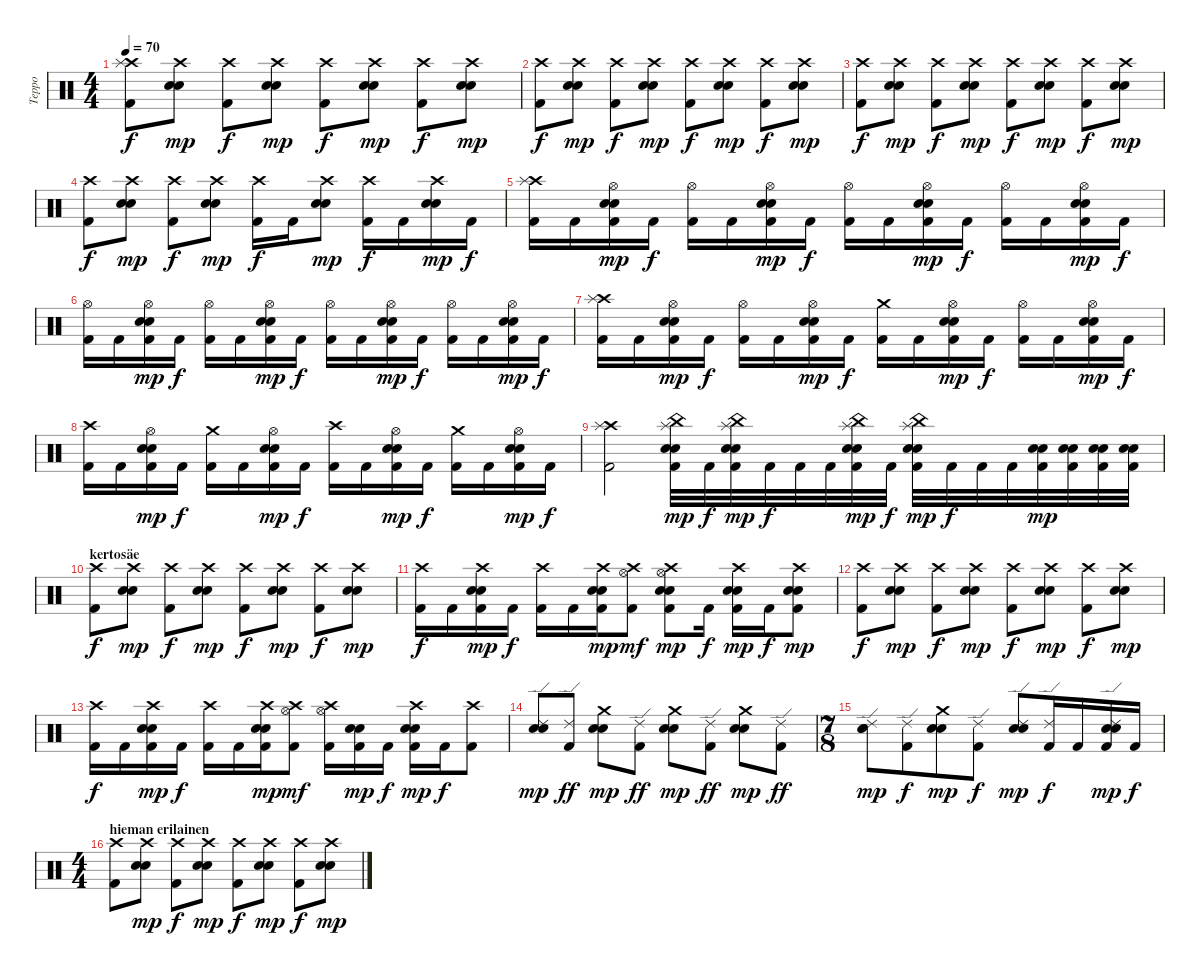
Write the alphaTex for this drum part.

\track ("Teppo" "Teppo") {instrument percussion}
\staff {score}
\articulation defaults
\ts (4 4)
\tempo 70
\clef neutral
\ks c
("Crash high (hit)" "Splash (hit)" "Kick (hit) 2").8{dy f} ("Crash high (hit)" "Snare (hit) 2" "Electric Snare (hit)").8{dy mp} ("Crash high (hit)" "Kick (hit) 2").8{dy f} ("Crash high (hit)" "Snare (hit) 2" "Electric Snare (hit)").8{dy mp} ("Crash high (hit)" "Kick (hit) 2").8{dy f} ("Crash high (hit)" "Snare (hit) 2" "Electric Snare (hit)").8{dy mp} ("Crash high (hit)" "Kick (hit) 2").8{dy f} ("Crash high (hit)" "Snare (hit) 2" "Electric Snare (hit)").8{dy mp} |
("Crash high (hit)" "Kick (hit) 2").8{dy f} ("Crash high (hit)" "Snare (hit) 2" "Electric Snare (hit)").8{dy mp} ("Crash high (hit)" "Kick (hit) 2").8{dy f} ("Crash high (hit)" "Snare (hit) 2" "Electric Snare (hit)").8{dy mp} ("Crash high (hit)" "Kick (hit) 2").8{dy f} ("Crash high (hit)" "Snare (hit) 2" "Electric Snare (hit)").8{dy mp} ("Crash high (hit)" "Kick (hit) 2").8{dy f} ("Crash high (hit)" "Snare (hit) 2" "Electric Snare (hit)").8{dy mp} |
("Crash high (hit)" "Kick (hit) 2").8{dy f} ("Crash high (hit)" "Snare (hit) 2" "Electric Snare (hit)").8{dy mp} ("Crash high (hit)" "Kick (hit) 2").8{dy f} ("Crash high (hit)" "Snare (hit) 2" "Electric Snare (hit)").8{dy mp} ("Crash high (hit)" "Kick (hit) 2").8{dy f} ("Crash high (hit)" "Snare (hit) 2" "Electric Snare (hit)").8{dy mp} ("Crash high (hit)" "Kick (hit) 2").8{dy f} ("Crash high (hit)" "Snare (hit) 2" "Electric Snare (hit)").8{dy mp} |
("Crash high (hit)" "Kick (hit) 2").8{dy f} ("Crash high (hit)" "Snare (hit) 2" "Electric Snare (hit)").8{dy mp} ("Crash high (hit)" "Kick (hit) 2").8{dy f} ("Crash high (hit)" "Snare (hit) 2" "Electric Snare (hit)").8{dy mp} ("Crash high (hit)" "Kick (hit) 2").16{dy f} "Kick (hit) 2".16 ("Crash high (hit)" "Snare (hit) 2" "Electric Snare (hit)").8{dy mp} ("Crash high (hit)" "Kick (hit) 2").16{dy f} "Kick (hit) 2".16 ("Crash high (hit)" "Snare (hit) 2" "Electric Snare (hit)").16{dy mp} "Kick (hit) 2".16{dy f} |
("Crash high (hit)" "Splash (hit)" "Kick (hit) 2").16 "Kick (hit) 2".16 ("Hi-Hat (open)" "Snare (hit) 2" "Electric Snare (hit)" "Kick (hit) 2").16{dy mp} "Kick (hit) 2".16{dy f} ("Hi-Hat (open)" "Kick (hit) 2").16 "Kick (hit) 2".16 ("Hi-Hat (open)" "Snare (hit) 2" "Electric Snare (hit)" "Kick (hit) 2").16{dy mp} "Kick (hit) 2".16{dy f} ("Hi-Hat (open)" "Kick (hit) 2").16 "Kick (hit) 2".16 ("Hi-Hat (open)" "Snare (hit) 2" "Electric Snare (hit)" "Kick (hit) 2").16{dy mp} "Kick (hit) 2".16{dy f} ("Hi-Hat (open)" "Kick (hit) 2").16 "Kick (hit) 2".16 ("Hi-Hat (open)" "Snare (hit) 2" "Electric Snare (hit)" "Kick (hit) 2").16{dy mp} "Kick (hit) 2".16{dy f} |
("Hi-Hat (open)" "Kick (hit) 2").16 "Kick (hit) 2".16 ("Hi-Hat (open)" "Snare (hit) 2" "Electric Snare (hit)" "Kick (hit) 2").16{dy mp} "Kick (hit) 2".16{dy f} ("Hi-Hat (open)" "Kick (hit) 2").16 "Kick (hit) 2".16 ("Hi-Hat (open)" "Snare (hit) 2" "Electric Snare (hit)" "Kick (hit) 2").16{dy mp} "Kick (hit) 2".16{dy f} ("Hi-Hat (open)" "Kick (hit) 2").16 "Kick (hit) 2".16 ("Hi-Hat (open)" "Snare (hit) 2" "Electric Snare (hit)" "Kick (hit) 2").16{dy mp} "Kick (hit) 2".16{dy f} ("Hi-Hat (open)" "Kick (hit) 2").16 "Kick (hit) 2".16 ("Hi-Hat (open)" "Snare (hit) 2" "Electric Snare (hit)" "Kick (hit) 2").16{dy mp} "Kick (hit) 2".16{dy f} |
("Crash high (hit)" "Splash (hit)" "Kick (hit) 2").16 "Kick (hit) 2".16 ("Hi-Hat (open)" "Snare (hit) 2" "Electric Snare (hit)" "Kick (hit) 2").16{dy mp} "Kick (hit) 2".16{dy f} ("Hi-Hat (open)" "Kick (hit) 2").16 "Kick (hit) 2".16 ("Hi-Hat (open)" "Snare (hit) 2" "Electric Snare (hit)" "Kick (hit) 2").16{dy mp} "Kick (hit) 2".16{dy f} ("Crash medium (hit)" "Kick (hit) 2").16 "Kick (hit) 2".16 ("Hi-Hat (open)" "Snare (hit) 2" "Electric Snare (hit)" "Kick (hit) 2").16{dy mp} "Kick (hit) 2".16{dy f} ("Hi-Hat (open)" "Kick (hit) 2").16 "Kick (hit) 2".16 ("Hi-Hat (open)" "Snare (hit) 2" "Electric Snare (hit)" "Kick (hit) 2").16{dy mp} "Kick (hit) 2".16{dy f} |
("Crash high (hit)" "Kick (hit) 2").16 "Kick (hit) 2".16 ("Hi-Hat (open)" "Snare (hit) 2" "Electric Snare (hit)" "Kick (hit) 2").16{dy mp} "Kick (hit) 2".16{dy f} ("Crash medium (hit)" "Kick (hit) 2").16 "Kick (hit) 2".16 ("Hi-Hat (open)" "Snare (hit) 2" "Electric Snare (hit)" "Kick (hit) 2").16{dy mp} "Kick (hit) 2".16{dy f} ("Crash high (hit)" "Kick (hit) 2").16 "Kick (hit) 2".16 ("Hi-Hat (open)" "Snare (hit) 2" "Electric Snare (hit)" "Kick (hit) 2").16{dy mp} "Kick (hit) 2".16{dy f} ("Crash medium (hit)" "Kick (hit) 2").16 "Kick (hit) 2".16 ("Hi-Hat (open)" "Snare (hit) 2" "Electric Snare (hit)" "Kick (hit) 2").16{dy mp} "Kick (hit) 2".16{dy f} |
("Crash high (hit)" "Splash (hit)" "Kick (hit) 2").2 ("China (hit)" "Splash (hit)" "Snare (hit) 2" "Electric Snare (hit)" "Kick (hit) 2").32{dy mp} "Kick (hit) 2".32{dy f} ("China (hit)" "Splash (hit)" "Snare (hit) 2" "Electric Snare (hit)" "Kick (hit) 2").32{dy mp} "Kick (hit) 2".32{dy f} "Kick (hit) 2".32 "Kick (hit) 2".32 ("China (hit)" "Splash (hit)" "Snare (hit) 2" "Electric Snare (hit)" "Kick (hit) 2").32{dy mp} "Kick (hit) 2".32{dy f} ("China (hit)" "Splash (hit)" "Snare (hit) 2" "Electric Snare (hit)" "Kick (hit) 2").32{dy mp} "Kick (hit) 2".32{dy f} "Kick (hit) 2".32 "Kick (hit) 2".32 ("Snare (hit) 2" "Electric Snare (hit)" "Kick (hit) 2").32{dy mp} ("Snare (hit) 2" "Electric Snare (hit)" "Kick (hit) 2").32 ("Snare (hit) 2" "Electric Snare (hit)" "Kick (hit) 2").32 ("Snare (hit) 2" "Electric Snare (hit)" "Kick (hit) 2").32 |
\section ("" "kertosäe")
("Crash high (hit)" "Kick (hit) 2").8{dy f} ("Crash high (hit)" "Snare (hit) 2" "Electric Snare (hit)").8{dy mp} ("Crash high (hit)" "Kick (hit) 2").8{dy f} ("Crash high (hit)" "Snare (hit) 2" "Electric Snare (hit)").8{dy mp} ("Crash high (hit)" "Kick (hit) 2").8{dy f} ("Crash high (hit)" "Snare (hit) 2" "Electric Snare (hit)").8{dy mp} ("Crash high (hit)" "Kick (hit) 2").8{dy f} ("Crash high (hit)" "Snare (hit) 2" "Electric Snare (hit)").8{dy mp} |
("Crash high (hit)" "Kick (hit) 2").16{dy f} "Kick (hit) 2".16 ("Crash high (hit)" "Snare (hit) 2" "Electric Snare (hit)" "Kick (hit) 2").16{dy mp} "Kick (hit) 2".16{dy f} ("Crash high (hit)" "Kick (hit) 2").16 "Kick (hit) 2".16 ("Crash high (hit)" "Snare (hit) 2" "Electric Snare (hit)" "Kick (hit) 2").16{dy mp} ("Hi-Hat (open)" "Crash high (hit)" "Kick (hit) 2").8{dy mf} ("Hi-Hat (open)" "Crash high (hit)" "Snare (hit) 2" "Electric Snare (hit)" "Kick (hit) 2").8{dy mp} "Kick (hit) 2".16{dy f} ("Crash high (hit)" "Snare (hit) 2" "Electric Snare (hit)" "Kick (hit) 2").16{dy mp} "Kick (hit) 2".16{dy f} ("Crash high (hit)" "Snare (hit) 2" "Electric Snare (hit)" "Kick (hit) 2").8{dy mp} |
("Crash high (hit)" "Kick (hit) 2").8{dy f} ("Crash high (hit)" "Snare (hit) 2" "Electric Snare (hit)").8{dy mp} ("Crash high (hit)" "Kick (hit) 2").8{dy f} ("Crash high (hit)" "Snare (hit) 2" "Electric Snare (hit)").8{dy mp} ("Crash high (hit)" "Kick (hit) 2").8{dy f} ("Crash high (hit)" "Snare (hit) 2" "Electric Snare (hit)").8{dy mp} ("Crash high (hit)" "Kick (hit) 2").8{dy f} ("Crash high (hit)" "Snare (hit) 2" "Electric Snare (hit)").8{dy mp} |
("Crash high (hit)" "Kick (hit) 2").16{dy f} "Kick (hit) 2".16 ("Crash high (hit)" "Snare (hit) 2" "Electric Snare (hit)" "Kick (hit) 2").16{dy mp} "Kick (hit) 2".16{dy f} ("Crash high (hit)" "Kick (hit) 2").16 "Kick (hit) 2".16 ("Crash high (hit)" "Snare (hit) 2" "Electric Snare (hit)" "Kick (hit) 2").16{dy mp} ("Hi-Hat (open)" "Crash high (hit)" "Kick (hit) 2").8{dy mf} ("Hi-Hat (open)" "Crash high (hit)" "Kick (hit) 2").16 ("Snare (hit) 2" "Electric Snare (hit)" "Kick (hit) 2").16{dy mp} "Kick (hit) 2".16{dy f} ("Crash high (hit)" "Snare (hit) 2" "Electric Snare (hit)" "Kick (hit) 2").16{dy mp} "Kick (hit) 2".16{dy f} ("Crash high (hit)" "Kick (hit) 2").8 |
("Ride (edge) 2" "Snare (hit) 2" "Electric Snare (hit)").8{dy mp} ("Ride (edge) 2" "Kick (hit) 2").8{dy ff} ("Crash medium (hit)" "Snare (hit) 2" "Electric Snare (hit)").8{dy mp} ("Ride (edge) 2" "Kick (hit) 2").8{dy ff} ("Crash medium (hit)" "Snare (hit) 2" "Electric Snare (hit)").8{dy mp} ("Ride (edge) 2" "Kick (hit) 2").8{dy ff} ("Crash medium (hit)" "Snare (hit) 2" "Electric Snare (hit)").8{dy mp} ("Ride (edge) 2" "Kick (hit) 2").8{dy ff} |
\ts (7 8)
("Ride (edge) 2" "Snare (hit) 2" "Electric Snare (hit)").8{dy mp} ("Ride (edge) 2" "Kick (hit) 2").8{dy f} ("Crash medium (hit)" "Snare (hit) 2" "Electric Snare (hit)").8{dy mp} ("Ride (edge) 2" "Kick (hit) 2").8{dy f} ("Ride (edge) 2" "Snare (hit) 2" "Electric Snare (hit)").8{dy mp} ("Ride (edge) 2" "Kick (hit) 2").16{dy f} "Kick (hit) 2".16 ("Ride (edge) 2" "Snare (hit) 2" "Electric Snare (hit)" "Kick (hit) 2").16{dy mp} "Kick (hit) 2".16{dy f} |
\ts (4 4)
\section ("" "hieman erilainen")
("Crash high (hit)" "Kick (hit) 2").8 ("Crash high (hit)" "Snare (hit) 2" "Electric Snare (hit)").8{dy mp} ("Crash high (hit)" "Kick (hit) 2").8{dy f} ("Crash high (hit)" "Snare (hit) 2" "Electric Snare (hit)").8{dy mp} ("Crash high (hit)" "Kick (hit) 2").8{dy f} ("Crash high (hit)" "Snare (hit) 2" "Electric Snare (hit)").8{dy mp} ("Crash high (hit)" "Kick (hit) 2").8{dy f} ("Crash high (hit)" "Snare (hit) 2" "Electric Snare (hit)").8{dy mp}
